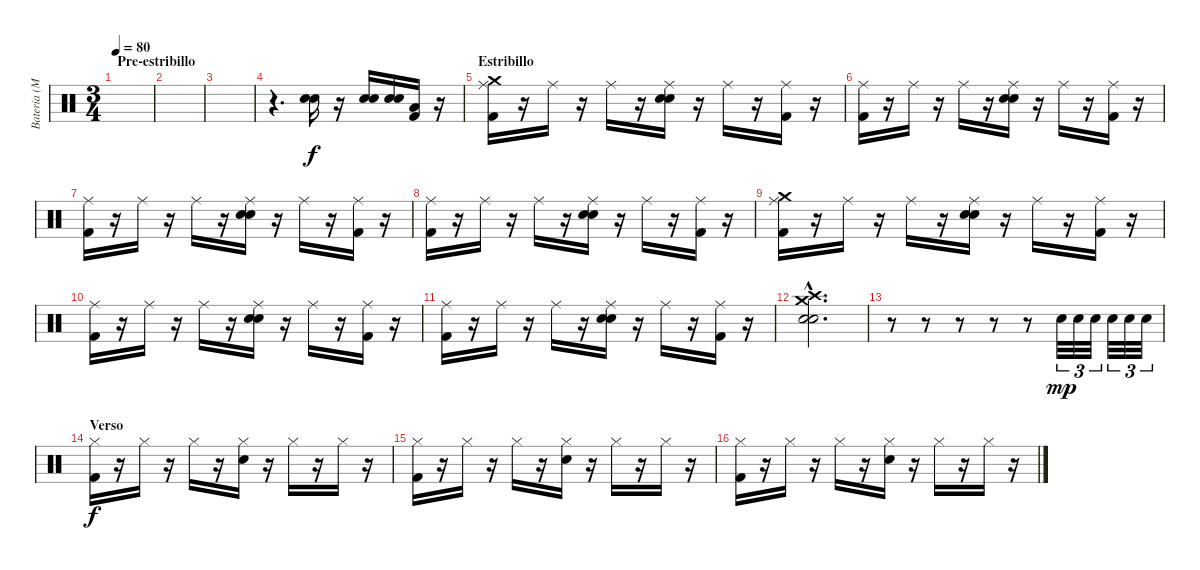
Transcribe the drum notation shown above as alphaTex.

\track ("Bateria (Matt)" "Bateria (M") {instrument percussion}
\staff {score}
\articulation defaults
\ts (3 4)
\section ("" "Pre-estribillo")
\tempo 80
\clef neutral
\ks c
|
|
|
r.4{d} ("Snare (hit) 2" "Electric Snare (hit)").16 r.16 ("Snare (hit) 2" "Electric Snare (hit)").16 ("Snare (hit) 2" "Electric Snare (hit)").16 ("Low Tom (hit)" "Kick (hit) 2").16 r.16 |
\section ("" "Estribillo")
("Ride (middle)" "Crash medium (hit)" "Kick (hit) 2").16 r.16 "Ride (middle)".16 r.16 "Ride (middle)".16 r.16 ("Ride (middle)" "Electric Snare (hit)" "Snare (hit) 2").16 r.16 "Ride (middle)".16 r.16 ("Ride (middle)" "Kick (hit) 2").16 r.16 |
("Ride (middle)" "Kick (hit) 2").16 r.16 "Ride (middle)".16 r.16 "Ride (middle)".16 r.16 ("Ride (middle)" "Electric Snare (hit)" "Snare (hit) 2").16 r.16 "Ride (middle)".16 r.16 ("Ride (middle)" "Kick (hit) 2").16 r.16 |
("Ride (middle)" "Kick (hit) 2").16 r.16 "Ride (middle)".16 r.16 "Ride (middle)".16 r.16 ("Ride (middle)" "Electric Snare (hit)" "Snare (hit) 2").16 r.16 "Ride (middle)".16 r.16 ("Ride (middle)" "Kick (hit) 2").16 r.16 |
("Ride (middle)" "Kick (hit) 2").16 r.16 "Ride (middle)".16 r.16 "Ride (middle)".16 r.16 ("Ride (middle)" "Electric Snare (hit)" "Snare (hit) 2").16 r.16 "Ride (middle)".16 r.16 ("Ride (middle)" "Kick (hit) 2").16 r.16 |
("Ride (middle)" "Crash medium (hit)" "Kick (hit) 2").16 r.16 "Ride (middle)".16 r.16 "Ride (middle)".16 r.16 ("Ride (middle)" "Electric Snare (hit)" "Snare (hit) 2").16 r.16 "Ride (middle)".16 r.16 ("Ride (middle)" "Kick (hit) 2").16 r.16 |
("Ride (middle)" "Kick (hit) 2").16 r.16 "Ride (middle)".16 r.16 "Ride (middle)".16 r.16 ("Ride (middle)" "Electric Snare (hit)" "Snare (hit) 2").16 r.16 "Ride (middle)".16 r.16 ("Ride (middle)" "Kick (hit) 2").16 r.16 |
("Ride (middle)" "Kick (hit) 2").16 r.16 "Ride (middle)".16 r.16 "Ride (middle)".16 r.16 ("Ride (middle)" "Electric Snare (hit)" "Snare (hit) 2").16 r.16 "Ride (middle)".16 r.16 ("Ride (middle)" "Kick (hit) 2").16 r.16 |
("Crash medium (hit)"{hac} "Crash high (hit)"{hac} "Electric Snare (hit)"{hac} "Snare (hit) 2"{hac}).2{d} |
r.8 r.8 r.8 r.8 r.8 "Electric Snare (hit)".32{tu (3 2) dy mp} "Electric Snare (hit)".32{tu (3 2)} "Electric Snare (hit)".32{tu (3 2)} "Electric Snare (hit)".32{tu (3 2)} "Electric Snare (hit)".32{tu (3 2)} "Electric Snare (hit)".32{tu (3 2)} |
\section ("" "Verso")
("Hi-Hat (closed)" "Kick (hit) 2").16{dy f} r.16 "Hi-Hat (closed)".16 r.16 "Hi-Hat (closed)".16 r.16 ("Hi-Hat (closed)" "Electric Snare (hit)").16 r.16 "Hi-Hat (closed)".16 r.16 "Hi-Hat (closed)".16 r.16 |
("Hi-Hat (closed)" "Kick (hit) 2").16 r.16 "Hi-Hat (closed)".16 r.16 "Hi-Hat (closed)".16 r.16 ("Hi-Hat (closed)" "Electric Snare (hit)").16 r.16 "Hi-Hat (closed)".16 r.16 "Hi-Hat (closed)".16 r.16 |
("Hi-Hat (closed)" "Kick (hit) 2").16 r.16 "Hi-Hat (closed)".16 r.16 "Hi-Hat (closed)".16 r.16 ("Hi-Hat (closed)" "Electric Snare (hit)").16 r.16 "Hi-Hat (closed)".16 r.16 "Hi-Hat (closed)".16 r.16
